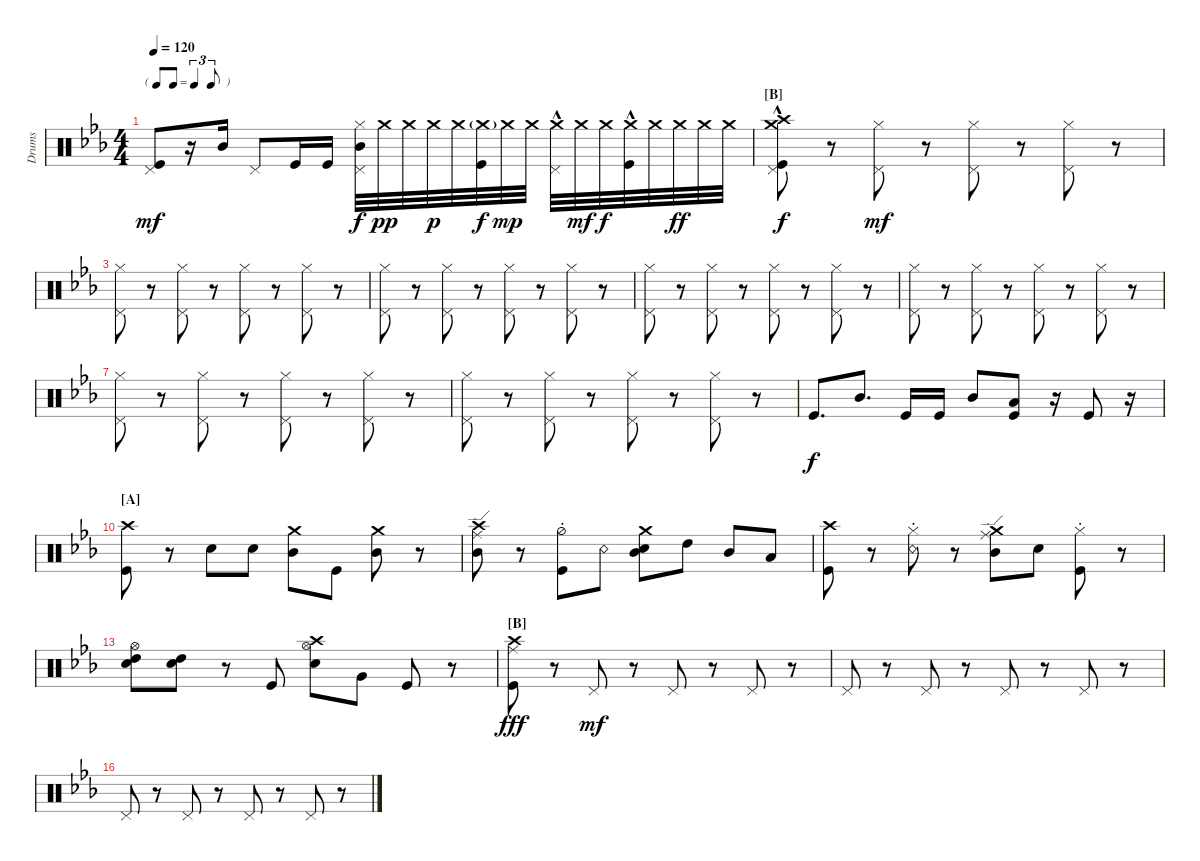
\bracketExtendMode nobrackets
\otherSystemsTrackNameOrientation horizontal
\defaultBarNumberDisplay FirstOfSystem
\track ("Drumkit" "Drums") {instrument percussion}
\staff {score}
\articulation defaults
\ts (4 4)
\tf triplet8th
\tempo 120
\clef neutral
\ks cminor
("Pedal Hi-Hat (hit)" "Kick (hit)").8{dy mf} r.16 "Mid Tom (hit)".16 "Pedal Hi-Hat (hit)".8 "Kick (hit)".16 "Kick (hit)".16 ("Pedal Hi-Hat (hit)" "Mid Tom (hit)" "Hi-Hat (closed)").32{dy f} "Crash medium (hit)".32{dy pp} "Crash medium (hit)".32 "Crash medium (hit)".32{dy p} "Crash medium (hit)".32 ("Crash medium (hit)"{g} "Kick (hit)").32{dy f} "Crash medium (hit)".32{dy mp} "Crash medium (hit)".32 ("Crash medium (hit)" "Pedal Hi-Hat (hit)"{hac}).32 "Crash medium (hit)".32{dy mf} "Crash medium (hit)".32{dy f} ("Crash medium (hit)" "Kick (hit)"{hac}).32 "Crash medium (hit)".32 "Crash medium (hit)".32{dy ff} "Crash medium (hit)".32 "Crash medium (hit)".32 |
\section ("B" "")
("Pedal Hi-Hat (hit)" "Kick (hit)" "Crash medium (hit)"{hac} "Crash high (hit)"{hac}).8{dy f} r.8 ("Pedal Hi-Hat (hit)" "Hi-Hat (closed)").8{dy mf} r.8 ("Pedal Hi-Hat (hit)" "Hi-Hat (closed)").8 r.8 ("Pedal Hi-Hat (hit)" "Hi-Hat (closed)").8 r.8 |
("Pedal Hi-Hat (hit)" "Hi-Hat (closed)").8 r.8 ("Pedal Hi-Hat (hit)" "Hi-Hat (closed)").8 r.8 ("Pedal Hi-Hat (hit)" "Hi-Hat (closed)").8 r.8 ("Pedal Hi-Hat (hit)" "Hi-Hat (closed)").8 r.8 |
("Pedal Hi-Hat (hit)" "Hi-Hat (closed)").8 r.8 ("Pedal Hi-Hat (hit)" "Hi-Hat (closed)").8 r.8 ("Pedal Hi-Hat (hit)" "Hi-Hat (closed)").8 r.8 ("Pedal Hi-Hat (hit)" "Hi-Hat (closed)").8 r.8 |
("Pedal Hi-Hat (hit)" "Hi-Hat (closed)").8 r.8 ("Pedal Hi-Hat (hit)" "Hi-Hat (closed)").8 r.8 ("Pedal Hi-Hat (hit)" "Hi-Hat (closed)").8 r.8 ("Pedal Hi-Hat (hit)" "Hi-Hat (closed)").8 r.8 |
("Pedal Hi-Hat (hit)" "Hi-Hat (closed)").8 r.8 ("Pedal Hi-Hat (hit)" "Hi-Hat (closed)").8 r.8 ("Pedal Hi-Hat (hit)" "Hi-Hat (closed)").8 r.8 ("Pedal Hi-Hat (hit)" "Hi-Hat (closed)").8 r.8 |
("Pedal Hi-Hat (hit)" "Hi-Hat (closed)").8 r.8 ("Pedal Hi-Hat (hit)" "Hi-Hat (closed)").8 r.8 ("Pedal Hi-Hat (hit)" "Hi-Hat (closed)").8 r.8 ("Pedal Hi-Hat (hit)" "Hi-Hat (closed)").8 r.8 |
("Pedal Hi-Hat (hit)" "Hi-Hat (closed)").8 r.8 ("Pedal Hi-Hat (hit)" "Hi-Hat (closed)").8 r.8 ("Pedal Hi-Hat (hit)" "Hi-Hat (closed)").8 r.8 ("Pedal Hi-Hat (hit)" "Hi-Hat (closed)").8 r.8 |
"Kick (hit)".8{d dy f} "Mid Tom (hit)".8{d} "Kick (hit)".16 "Kick (hit)".16 "Mid Tom (hit)".8 ("Low Tom (hit)" "Kick (hit)").8 r.16 "Kick (hit)".8 r.16 |
\section ("A" "")
("Crash high (hit)" "Kick (hit)").8 r.8 "Snare (hit) 2".8 "Snare (hit) 2".8 ("Mid Tom (hit)" "Crash medium (hit)").8 "Kick (hit)".8 ("Mid Tom (hit)" "Crash medium (hit)").8 r.8 |
("Ride (edge)" "Mid Tom (hit)" "Crash high (hit)").8 r.8 ("Hi-Hat (half)"{st} "Kick (hit)").8 "Snare (rim shot)".8 ("Mid Tom (hit)" "Crash medium (hit)" "Snare (hit) 2").8 "High Tom (hit)".8 "Mid Tom (hit)".8 "Low Tom (hit)".8 |
("Crash high (hit)" "Kick (hit)").8 r.8 ("Hi-Hat (closed)"{st} "Snare (rim shot)").8 r.8 ("Ride (edge)" "Crash medium (hit)" "Mid Tom (hit)").8 "Snare (hit) 2".8 ("Hi-Hat (closed)"{st} "Kick (hit)").8 r.8 |
("Snare (hit) 2" "Hi-Hat (open)" "High Tom (hit)").8 ("High Tom (hit)" "Snare (hit) 2").8 r.8 "Kick (hit)".8 ("Snare (hit) 2" "Crash high (hit)" "Hi-Hat (open)").8 "Very Low Tom (hit)".8 "Kick (hit)".8 r.8 |
\section ("B" "")
("Crash high (hit)" "Ride (middle)" "Kick (hit)").8{dy fff} r.8 "Pedal Hi-Hat (hit)".8{dy mf} r.8 "Pedal Hi-Hat (hit)".8 r.8 "Pedal Hi-Hat (hit)".8 r.8 |
"Pedal Hi-Hat (hit)".8 r.8 "Pedal Hi-Hat (hit)".8 r.8 "Pedal Hi-Hat (hit)".8 r.8 "Pedal Hi-Hat (hit)".8 r.8 |
"Pedal Hi-Hat (hit)".8 r.8 "Pedal Hi-Hat (hit)".8 r.8 "Pedal Hi-Hat (hit)".8 r.8 "Pedal Hi-Hat (hit)".8 r.8
